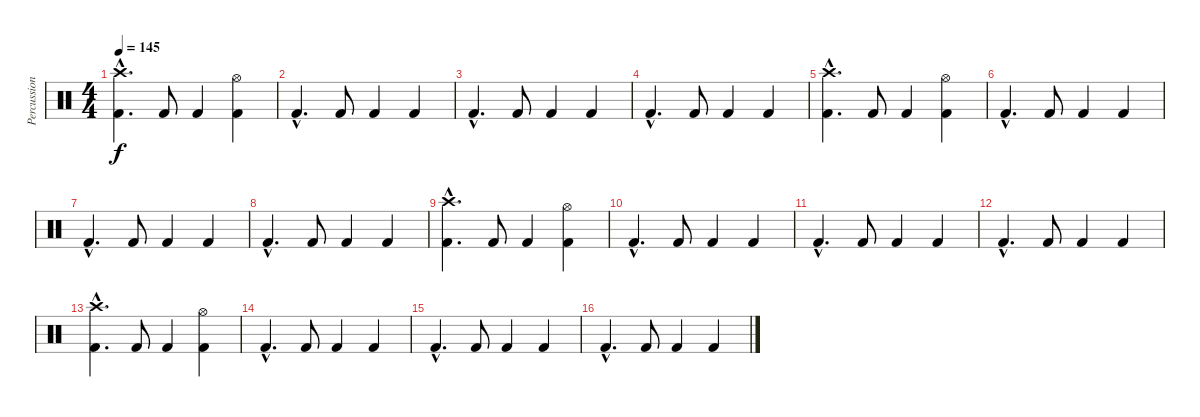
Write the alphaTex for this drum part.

\track ("Percussion" "Percussion") {instrument percussion}
\staff {score}
\articulation defaults
\ts (4 4)
\tempo 145
\clef neutral
\ks c
("Crash high (hit)"{hac} "Kick (hit) 2"{hac}).4{d dy f} "Kick (hit) 2".8 "Kick (hit) 2".4 ("Hi-Hat (open)" "Kick (hit) 2").4 |
"Kick (hit) 2"{hac}.4{d} "Kick (hit) 2".8 "Kick (hit) 2".4 "Kick (hit) 2".4 |
"Kick (hit) 2"{hac}.4{d} "Kick (hit) 2".8 "Kick (hit) 2".4 "Kick (hit) 2".4 |
"Kick (hit) 2"{hac}.4{d} "Kick (hit) 2".8 "Kick (hit) 2".4 "Kick (hit) 2".4 |
("Crash high (hit)"{hac} "Kick (hit) 2"{hac}).4{d} "Kick (hit) 2".8 "Kick (hit) 2".4 ("Hi-Hat (open)" "Kick (hit) 2").4 |
"Kick (hit) 2"{hac}.4{d} "Kick (hit) 2".8 "Kick (hit) 2".4 "Kick (hit) 2".4 |
"Kick (hit) 2"{hac}.4{d} "Kick (hit) 2".8 "Kick (hit) 2".4 "Kick (hit) 2".4 |
"Kick (hit) 2"{hac}.4{d} "Kick (hit) 2".8 "Kick (hit) 2".4 "Kick (hit) 2".4 |
("Crash high (hit)"{hac} "Kick (hit) 2"{hac}).4{d} "Kick (hit) 2".8 "Kick (hit) 2".4 ("Hi-Hat (open)" "Kick (hit) 2").4 |
"Kick (hit) 2"{hac}.4{d} "Kick (hit) 2".8 "Kick (hit) 2".4 "Kick (hit) 2".4 |
"Kick (hit) 2"{hac}.4{d} "Kick (hit) 2".8 "Kick (hit) 2".4 "Kick (hit) 2".4 |
"Kick (hit) 2"{hac}.4{d} "Kick (hit) 2".8 "Kick (hit) 2".4 "Kick (hit) 2".4 |
("Crash high (hit)"{hac} "Kick (hit) 2"{hac}).4{d} "Kick (hit) 2".8 "Kick (hit) 2".4 ("Hi-Hat (open)" "Kick (hit) 2").4 |
"Kick (hit) 2"{hac}.4{d} "Kick (hit) 2".8 "Kick (hit) 2".4 "Kick (hit) 2".4 |
"Kick (hit) 2"{hac}.4{d} "Kick (hit) 2".8 "Kick (hit) 2".4 "Kick (hit) 2".4 |
"Kick (hit) 2"{hac}.4{d} "Kick (hit) 2".8 "Kick (hit) 2".4 "Kick (hit) 2".4
